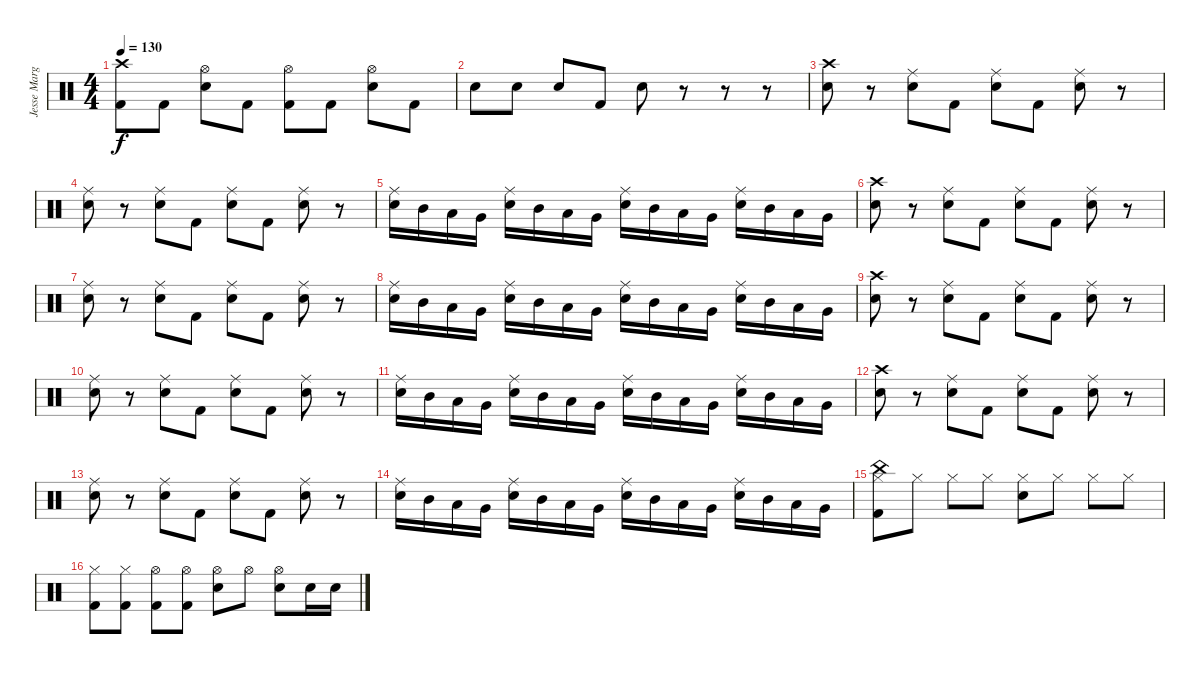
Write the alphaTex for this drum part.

\track ("Jesse Margera" "Jesse Marg") {instrument percussion}
\staff {score}
\articulation defaults
\ts (4 4)
\tempo 130
\clef neutral
\ks c
("Crash high (hit)" "Kick (hit) 2").8{dy f} "Kick (hit) 2".8 ("Hi-Hat (open)" "Electric Snare (hit)").8 "Kick (hit) 2".8 ("Hi-Hat (open)" "Kick (hit) 2").8 "Kick (hit) 2".8 ("Hi-Hat (open)" "Electric Snare (hit)").8 "Kick (hit) 2".8 |
"Electric Snare (hit)".8 "Electric Snare (hit)".8 "Electric Snare (hit)".8 "Kick (hit) 2".8 "Electric Snare (hit)".8 r.8 r.8 r.8 |
("Crash high (hit)" "Electric Snare (hit)").8 r.8 ("Ride (middle)" "Electric Snare (hit)").8 "Kick (hit) 2".8 ("Ride (middle)" "Electric Snare (hit)").8 "Kick (hit) 2".8 ("Ride (middle)" "Electric Snare (hit)").8 r.8 |
("Ride (middle)" "Electric Snare (hit)").8 r.8 ("Ride (middle)" "Electric Snare (hit)").8 "Kick (hit) 2".8 ("Ride (middle)" "Electric Snare (hit)").8 "Kick (hit) 2".8 ("Ride (middle)" "Electric Snare (hit)").8 r.8 |
("Ride (middle)" "Electric Snare (hit)").16 "Mid Tom (hit)".16 "Low Tom (hit)".16 "Very Low Tom (hit)".16 ("Ride (middle)" "Electric Snare (hit)").16 "Mid Tom (hit)".16 "Low Tom (hit)".16 "Very Low Tom (hit)".16 ("Ride (middle)" "Electric Snare (hit)").16 "Mid Tom (hit)".16 "Low Tom (hit)".16 "Very Low Tom (hit)".16 ("Ride (middle)" "Electric Snare (hit)").16 "Mid Tom (hit)".16 "Low Tom (hit)".16 "Very Low Tom (hit)".16 |
("Crash high (hit)" "Electric Snare (hit)").8 r.8 ("Ride (middle)" "Electric Snare (hit)").8 "Kick (hit) 2".8 ("Ride (middle)" "Electric Snare (hit)").8 "Kick (hit) 2".8 ("Ride (middle)" "Electric Snare (hit)").8 r.8 |
("Ride (middle)" "Electric Snare (hit)").8 r.8 ("Ride (middle)" "Electric Snare (hit)").8 "Kick (hit) 2".8 ("Ride (middle)" "Electric Snare (hit)").8 "Kick (hit) 2".8 ("Ride (middle)" "Electric Snare (hit)").8 r.8 |
("Ride (middle)" "Electric Snare (hit)").16 "Mid Tom (hit)".16 "Low Tom (hit)".16 "Very Low Tom (hit)".16 ("Ride (middle)" "Electric Snare (hit)").16 "Mid Tom (hit)".16 "Low Tom (hit)".16 "Very Low Tom (hit)".16 ("Ride (middle)" "Electric Snare (hit)").16 "Mid Tom (hit)".16 "Low Tom (hit)".16 "Very Low Tom (hit)".16 ("Ride (middle)" "Electric Snare (hit)").16 "Mid Tom (hit)".16 "Low Tom (hit)".16 "Very Low Tom (hit)".16 |
("Crash high (hit)" "Electric Snare (hit)").8 r.8 ("Ride (middle)" "Electric Snare (hit)").8 "Kick (hit) 2".8 ("Ride (middle)" "Electric Snare (hit)").8 "Kick (hit) 2".8 ("Ride (middle)" "Electric Snare (hit)").8 r.8 |
("Ride (middle)" "Electric Snare (hit)").8 r.8 ("Ride (middle)" "Electric Snare (hit)").8 "Kick (hit) 2".8 ("Ride (middle)" "Electric Snare (hit)").8 "Kick (hit) 2".8 ("Ride (middle)" "Electric Snare (hit)").8 r.8 |
("Ride (middle)" "Electric Snare (hit)").16 "Mid Tom (hit)".16 "Low Tom (hit)".16 "Very Low Tom (hit)".16 ("Ride (middle)" "Electric Snare (hit)").16 "Mid Tom (hit)".16 "Low Tom (hit)".16 "Very Low Tom (hit)".16 ("Ride (middle)" "Electric Snare (hit)").16 "Mid Tom (hit)".16 "Low Tom (hit)".16 "Very Low Tom (hit)".16 ("Ride (middle)" "Electric Snare (hit)").16 "Mid Tom (hit)".16 "Low Tom (hit)".16 "Very Low Tom (hit)".16 |
("Crash high (hit)" "Electric Snare (hit)").8 r.8 ("Ride (middle)" "Electric Snare (hit)").8 "Kick (hit) 2".8 ("Ride (middle)" "Electric Snare (hit)").8 "Kick (hit) 2".8 ("Ride (middle)" "Electric Snare (hit)").8 r.8 |
("Ride (middle)" "Electric Snare (hit)").8 r.8 ("Ride (middle)" "Electric Snare (hit)").8 "Kick (hit) 2".8 ("Ride (middle)" "Electric Snare (hit)").8 "Kick (hit) 2".8 ("Ride (middle)" "Electric Snare (hit)").8 r.8 |
("Ride (middle)" "Electric Snare (hit)").16 "Mid Tom (hit)".16 "Low Tom (hit)".16 "Very Low Tom (hit)".16 ("Ride (middle)" "Electric Snare (hit)").16 "Mid Tom (hit)".16 "Low Tom (hit)".16 "Very Low Tom (hit)".16 ("Ride (middle)" "Electric Snare (hit)").16 "Mid Tom (hit)".16 "Low Tom (hit)".16 "Very Low Tom (hit)".16 ("Ride (middle)" "Electric Snare (hit)").16 "Mid Tom (hit)".16 "Low Tom (hit)".16 "Very Low Tom (hit)".16 |
("Hi-Hat (closed)" "China (hit)" "Kick (hit) 2").8 "Hi-Hat (closed)".8 "Hi-Hat (closed)".8 "Hi-Hat (closed)".8 ("Hi-Hat (closed)" "Electric Snare (hit)").8 "Hi-Hat (closed)".8 "Hi-Hat (closed)".8 "Hi-Hat (closed)".8 |
("Hi-Hat (closed)" "Kick (hit) 2").8 ("Hi-Hat (closed)" "Kick (hit) 2").8 ("Hi-Hat (open)" "Kick (hit) 2").8 ("Hi-Hat (open)" "Kick (hit) 2").8 ("Hi-Hat (open)" "Electric Snare (hit)").8 "Hi-Hat (open)".8 ("Hi-Hat (open)" "Electric Snare (hit)").8 "Electric Snare (hit)".16 "Electric Snare (hit)".16
